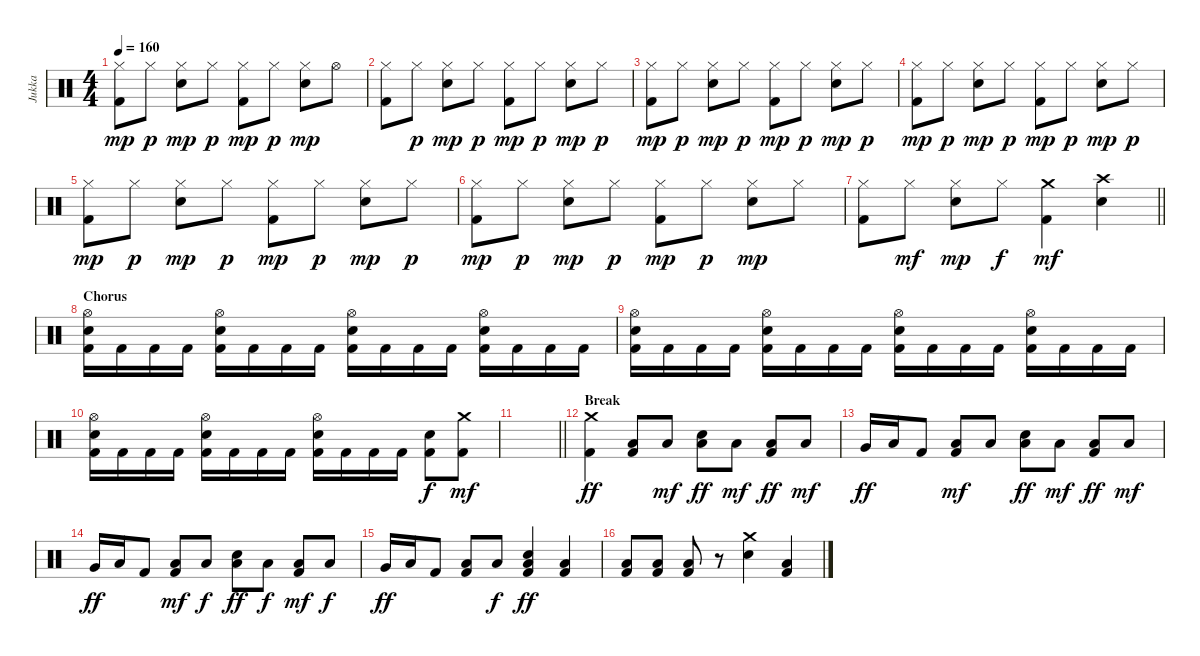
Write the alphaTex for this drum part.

\track ("Jukka" "Jukka") {instrument percussion}
\staff {score}
\articulation defaults
\ts (4 4)
\tempo 160
\clef neutral
\ks c
("Hi-Hat (closed)" "Kick (hit) 2").8{dy mp} "Hi-Hat (closed)".8{dy p} ("Hi-Hat (closed)" "Snare (hit) 2").8{dy mp} "Hi-Hat (closed)".8{dy p} ("Hi-Hat (closed)" "Kick (hit) 2").8{dy mp} "Hi-Hat (closed)".8{dy p} ("Hi-Hat (closed)" "Snare (hit) 2").8{dy mp} "Hi-Hat (open)".8 |
("Hi-Hat (closed)" "Kick (hit) 2").8 "Hi-Hat (closed)".8{dy p} ("Hi-Hat (closed)" "Snare (hit) 2").8{dy mp} "Hi-Hat (closed)".8{dy p} ("Hi-Hat (closed)" "Kick (hit) 2").8{dy mp} "Hi-Hat (closed)".8{dy p} ("Hi-Hat (closed)" "Snare (hit) 2").8{dy mp} "Hi-Hat (closed)".8{dy p} |
("Hi-Hat (closed)" "Kick (hit) 2").8{dy mp} "Hi-Hat (closed)".8{dy p} ("Hi-Hat (closed)" "Snare (hit) 2").8{dy mp} "Hi-Hat (closed)".8{dy p} ("Hi-Hat (closed)" "Kick (hit) 2").8{dy mp} "Hi-Hat (closed)".8{dy p} ("Hi-Hat (closed)" "Snare (hit) 2").8{dy mp} "Hi-Hat (closed)".8{dy p} |
("Hi-Hat (closed)" "Kick (hit) 2").8{dy mp} "Hi-Hat (closed)".8{dy p} ("Hi-Hat (closed)" "Snare (hit) 2").8{dy mp} "Hi-Hat (closed)".8{dy p} ("Hi-Hat (closed)" "Kick (hit) 2").8{dy mp} "Hi-Hat (closed)".8{dy p} ("Hi-Hat (closed)" "Snare (hit) 2").8{dy mp} "Hi-Hat (closed)".8{dy p} |
("Hi-Hat (closed)" "Kick (hit) 2").8{dy mp} "Hi-Hat (closed)".8{dy p} ("Hi-Hat (closed)" "Snare (hit) 2").8{dy mp} "Hi-Hat (closed)".8{dy p} ("Hi-Hat (closed)" "Kick (hit) 2").8{dy mp} "Hi-Hat (closed)".8{dy p} ("Hi-Hat (closed)" "Snare (hit) 2").8{dy mp} "Hi-Hat (closed)".8{dy p} |
("Hi-Hat (closed)" "Kick (hit) 2").8{dy mp} "Hi-Hat (closed)".8{dy p} ("Hi-Hat (closed)" "Snare (hit) 2").8{dy mp} "Hi-Hat (closed)".8{dy p} ("Hi-Hat (closed)" "Kick (hit) 2").8{dy mp} "Hi-Hat (closed)".8{dy p} ("Hi-Hat (closed)" "Snare (hit) 2").8{dy mp} "Hi-Hat (closed)".8 |
\barLineRight lightlight
("Hi-Hat (closed)" "Kick (hit) 2").8 "Hi-Hat (closed)".8{dy mf} ("Hi-Hat (closed)" "Snare (hit) 2").8{dy mp} "Hi-Hat (closed)".8{dy f} ("Crash medium (hit)" "Kick (hit) 2").4{dy mf} ("Crash high (hit)" "Snare (hit) 2").4 |
\section ("" "Chorus")
("Hi-Hat (open)" "Snare (hit) 2" "Kick (hit) 2").16 "Kick (hit) 2".16 "Kick (hit) 2".16 "Kick (hit) 2".16 ("Hi-Hat (open)" "Snare (hit) 2" "Kick (hit) 2").16 "Kick (hit) 2".16 "Kick (hit) 2".16 "Kick (hit) 2".16 ("Hi-Hat (open)" "Snare (hit) 2" "Kick (hit) 2").16 "Kick (hit) 2".16 "Kick (hit) 2".16 "Kick (hit) 2".16 ("Hi-Hat (open)" "Snare (hit) 2" "Kick (hit) 2").16 "Kick (hit) 2".16 "Kick (hit) 2".16 "Kick (hit) 2".16 |
("Hi-Hat (open)" "Snare (hit) 2" "Kick (hit) 2").16 "Kick (hit) 2".16 "Kick (hit) 2".16 "Kick (hit) 2".16 ("Hi-Hat (open)" "Snare (hit) 2" "Kick (hit) 2").16 "Kick (hit) 2".16 "Kick (hit) 2".16 "Kick (hit) 2".16 ("Hi-Hat (open)" "Snare (hit) 2" "Kick (hit) 2").16 "Kick (hit) 2".16 "Kick (hit) 2".16 "Kick (hit) 2".16 ("Hi-Hat (open)" "Snare (hit) 2" "Kick (hit) 2").16 "Kick (hit) 2".16 "Kick (hit) 2".16 "Kick (hit) 2".16 |
("Hi-Hat (open)" "Snare (hit) 2" "Kick (hit) 2").16 "Kick (hit) 2".16 "Kick (hit) 2".16 "Kick (hit) 2".16 ("Hi-Hat (open)" "Snare (hit) 2" "Kick (hit) 2").16 "Kick (hit) 2".16 "Kick (hit) 2".16 "Kick (hit) 2".16 ("Hi-Hat (open)" "Snare (hit) 2" "Kick (hit) 2").16 "Kick (hit) 2".16 "Kick (hit) 2".16 "Kick (hit) 2".16 ("Snare (hit) 2" "Kick (hit) 2").8{dy f} ("Crash medium (hit)" "Kick (hit) 2").8{dy mf} |
\barLineRight lightlight
|
\section ("" "Break")
("Crash medium (hit)" "Kick (hit) 2").4{dy ff} ("Low Floor Tom (hit)" "Kick (hit) 2").8 "Low Floor Tom (hit)".8{dy mf} ("Low Floor Tom (hit)" "Snare (hit) 2").8{dy ff} "Low Floor Tom (hit)".8{dy mf} ("Low Floor Tom (hit)" "Kick (hit) 2").8{dy ff} "Low Floor Tom (hit)".8{dy mf} |
"Very Low Tom (hit)".16{dy ff} "Low Floor Tom (hit)".16 "Kick (hit) 2".8 ("Low Floor Tom (hit)" "Kick (hit) 2").8{dy mf} "Low Floor Tom (hit)".8 ("Low Floor Tom (hit)" "Snare (hit) 2").8{dy ff} "Low Floor Tom (hit)".8{dy mf} ("Low Floor Tom (hit)" "Kick (hit) 2").8{dy ff} "Low Floor Tom (hit)".8{dy mf} |
"Very Low Tom (hit)".16{dy ff} "Low Floor Tom (hit)".16 "Kick (hit) 2".8 ("Low Floor Tom (hit)" "Kick (hit) 2").8{dy mf} "Low Floor Tom (hit)".8{dy f} ("Low Floor Tom (hit)" "Snare (hit) 2").8{dy ff} "Low Floor Tom (hit)".8{dy f} ("Low Floor Tom (hit)" "Kick (hit) 2").8{dy mf} "Low Floor Tom (hit)".8{dy f} |
"Very Low Tom (hit)".16{dy ff} "Low Floor Tom (hit)".16 "Kick (hit) 2".8 ("Low Floor Tom (hit)" "Kick (hit) 2").8 "Low Floor Tom (hit)".8{dy f} ("Low Floor Tom (hit)" "Snare (hit) 2" "Kick (hit) 2").4{dy ff} ("Low Floor Tom (hit)" "Kick (hit) 2").4 |
("Low Floor Tom (hit)" "Kick (hit) 2").8 ("Low Floor Tom (hit)" "Kick (hit) 2").8 ("Low Floor Tom (hit)" "Kick (hit) 2").8 r.8 ("Crash medium (hit)" "Snare (hit) 2").4 ("Low Floor Tom (hit)" "Kick (hit) 2").4
